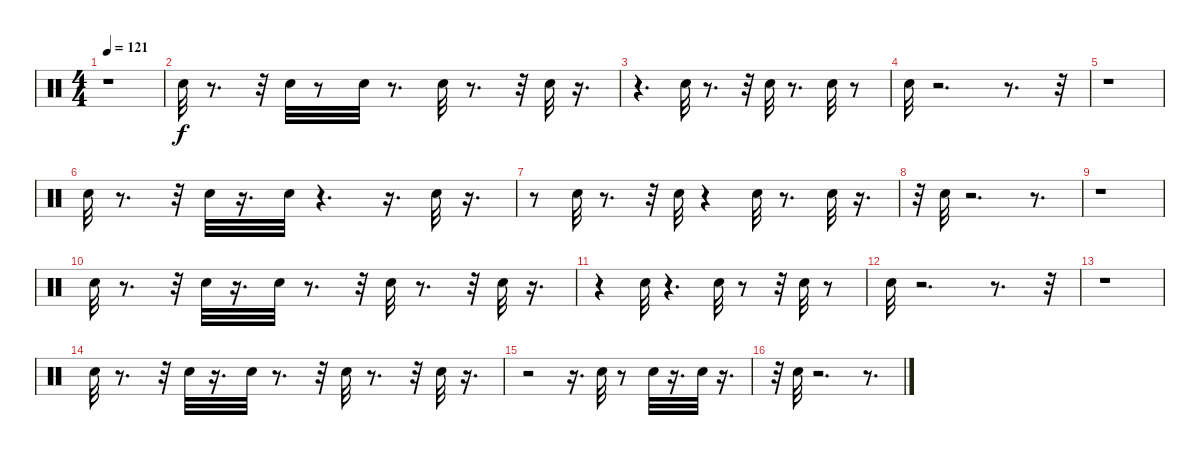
\track "" {instrument percussion}
\staff {score}
\articulation defaults
\ts (4 4)
\tempo 121
\clef neutral
\ks c
r.1{dy f} |
"Snare (hit)".32 r.8{d} r.32 "Snare (hit)".32 r.8 "Snare (hit)".32 r.8{d} "Snare (hit)".32 r.8{d} r.32 "Snare (hit)".32 r.16{d} |
r.4{d} "Snare (hit)".32 r.8{d} r.32 "Snare (hit)".32 r.8{d} "Snare (hit)".32 r.8 |
"Snare (hit)".32 r.2{d} r.8{d} r.32 |
r.1 |
"Snare (hit)".32 r.8{d} r.32 "Snare (hit)".32 r.16{d} "Snare (hit)".32 r.4{d} r.16{d} "Snare (hit)".32 r.16{d} |
r.8 "Snare (hit)".32 r.8{d} r.32 "Snare (hit)".32 r.4 "Snare (hit)".32 r.8{d} "Snare (hit)".32 r.16{d} |
r.32 "Snare (hit)".32 r.2{d} r.8{d} |
r.1 |
"Snare (hit)".32 r.8{d} r.32 "Snare (hit)".32 r.16{d} "Snare (hit)".32 r.8{d} r.32 "Snare (hit)".32 r.8{d} r.32 "Snare (hit)".32 r.16{d} |
r.4 "Snare (hit)".32 r.4{d} "Snare (hit)".32 r.8 r.32 "Snare (hit)".32 r.8 |
"Snare (hit)".32 r.2{d} r.8{d} r.32 |
r.1 |
"Snare (hit)".32 r.8{d} r.32 "Snare (hit)".32 r.16{d} "Snare (hit)".32 r.8{d} r.32 "Snare (hit)".32 r.8{d} r.32 "Snare (hit)".32 r.16{d} |
r.2 r.16{d} "Snare (hit)".32 r.8 "Snare (hit)".32 r.16{d} "Snare (hit)".32 r.16{d} |
r.32 "Snare (hit)".32 r.2{d} r.8{d}
